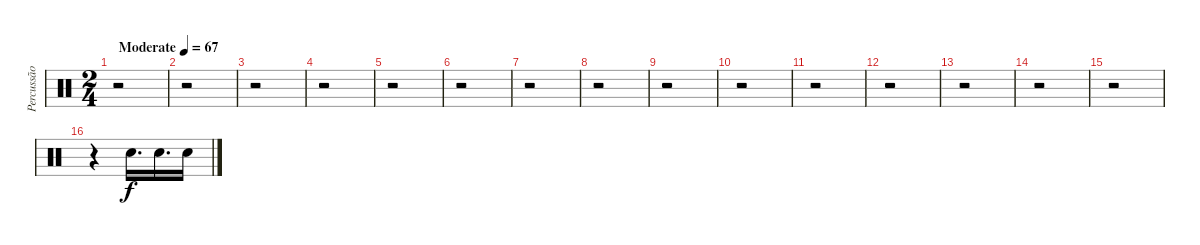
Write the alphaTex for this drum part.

\track ("Percussão" "Percussão") {instrument percussion}
\staff {score}
\articulation defaults
\ts (2 4)
\tempo (67 "Moderate")
\clef neutral
\ks c
r.2{dy f} |
r.2 |
r.2 |
r.2 |
r.2 |
r.2 |
r.2 |
r.2 |
r.2 |
r.2 |
r.2 |
r.2 |
r.2 |
r.2 |
r.2 |
r.4 "Snare (hit) 2".16{d} "Snare (hit) 2".16{d} "Snare (hit) 2".16
